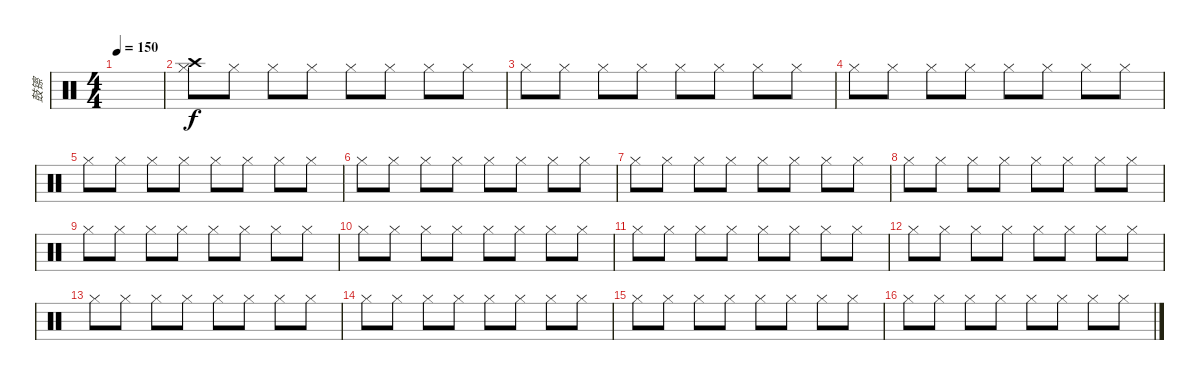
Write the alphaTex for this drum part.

\track ("鼓镲" "鼓镲") {instrument percussion}
\staff {score}
\articulation defaults
\ts (4 4)
\tempo 150
\clef neutral
\ks c
|
("Crash high (hit)" "Hi-Hat (closed)").8 "Hi-Hat (closed)".8 "Hi-Hat (closed)".8 "Hi-Hat (closed)".8 "Hi-Hat (closed)".8 "Hi-Hat (closed)".8 "Hi-Hat (closed)".8 "Hi-Hat (closed)".8 |
"Hi-Hat (closed)".8 "Hi-Hat (closed)".8 "Hi-Hat (closed)".8 "Hi-Hat (closed)".8 "Hi-Hat (closed)".8 "Hi-Hat (closed)".8 "Hi-Hat (closed)".8 "Hi-Hat (closed)".8 |
"Hi-Hat (closed)".8 "Hi-Hat (closed)".8 "Hi-Hat (closed)".8 "Hi-Hat (closed)".8 "Hi-Hat (closed)".8 "Hi-Hat (closed)".8 "Hi-Hat (closed)".8 "Hi-Hat (closed)".8 |
"Hi-Hat (closed)".8 "Hi-Hat (closed)".8 "Hi-Hat (closed)".8 "Hi-Hat (closed)".8 "Hi-Hat (closed)".8 "Hi-Hat (closed)".8 "Hi-Hat (closed)".8 "Hi-Hat (closed)".8 |
"Hi-Hat (closed)".8 "Hi-Hat (closed)".8 "Hi-Hat (closed)".8 "Hi-Hat (closed)".8 "Hi-Hat (closed)".8 "Hi-Hat (closed)".8 "Hi-Hat (closed)".8 "Hi-Hat (closed)".8 |
"Hi-Hat (closed)".8 "Hi-Hat (closed)".8 "Hi-Hat (closed)".8 "Hi-Hat (closed)".8 "Hi-Hat (closed)".8 "Hi-Hat (closed)".8 "Hi-Hat (closed)".8 "Hi-Hat (closed)".8 |
"Hi-Hat (closed)".8 "Hi-Hat (closed)".8 "Hi-Hat (closed)".8 "Hi-Hat (closed)".8 "Hi-Hat (closed)".8 "Hi-Hat (closed)".8 "Hi-Hat (closed)".8 "Hi-Hat (closed)".8 |
"Hi-Hat (closed)".8 "Hi-Hat (closed)".8 "Hi-Hat (closed)".8 "Hi-Hat (closed)".8 "Hi-Hat (closed)".8 "Hi-Hat (closed)".8 "Hi-Hat (closed)".8 "Hi-Hat (closed)".8 |
"Hi-Hat (closed)".8 "Hi-Hat (closed)".8 "Hi-Hat (closed)".8 "Hi-Hat (closed)".8 "Hi-Hat (closed)".8 "Hi-Hat (closed)".8 "Hi-Hat (closed)".8 "Hi-Hat (closed)".8 |
"Hi-Hat (closed)".8 "Hi-Hat (closed)".8 "Hi-Hat (closed)".8 "Hi-Hat (closed)".8 "Hi-Hat (closed)".8 "Hi-Hat (closed)".8 "Hi-Hat (closed)".8 "Hi-Hat (closed)".8 |
"Hi-Hat (closed)".8 "Hi-Hat (closed)".8 "Hi-Hat (closed)".8 "Hi-Hat (closed)".8 "Hi-Hat (closed)".8 "Hi-Hat (closed)".8 "Hi-Hat (closed)".8 "Hi-Hat (closed)".8 |
"Hi-Hat (closed)".8 "Hi-Hat (closed)".8 "Hi-Hat (closed)".8 "Hi-Hat (closed)".8 "Hi-Hat (closed)".8 "Hi-Hat (closed)".8 "Hi-Hat (closed)".8 "Hi-Hat (closed)".8 |
"Hi-Hat (closed)".8 "Hi-Hat (closed)".8 "Hi-Hat (closed)".8 "Hi-Hat (closed)".8 "Hi-Hat (closed)".8 "Hi-Hat (closed)".8 "Hi-Hat (closed)".8 "Hi-Hat (closed)".8 |
"Hi-Hat (closed)".8 "Hi-Hat (closed)".8 "Hi-Hat (closed)".8 "Hi-Hat (closed)".8 "Hi-Hat (closed)".8 "Hi-Hat (closed)".8 "Hi-Hat (closed)".8 "Hi-Hat (closed)".8 |
"Hi-Hat (closed)".8 "Hi-Hat (closed)".8 "Hi-Hat (closed)".8 "Hi-Hat (closed)".8 "Hi-Hat (closed)".8 "Hi-Hat (closed)".8 "Hi-Hat (closed)".8 "Hi-Hat (closed)".8
